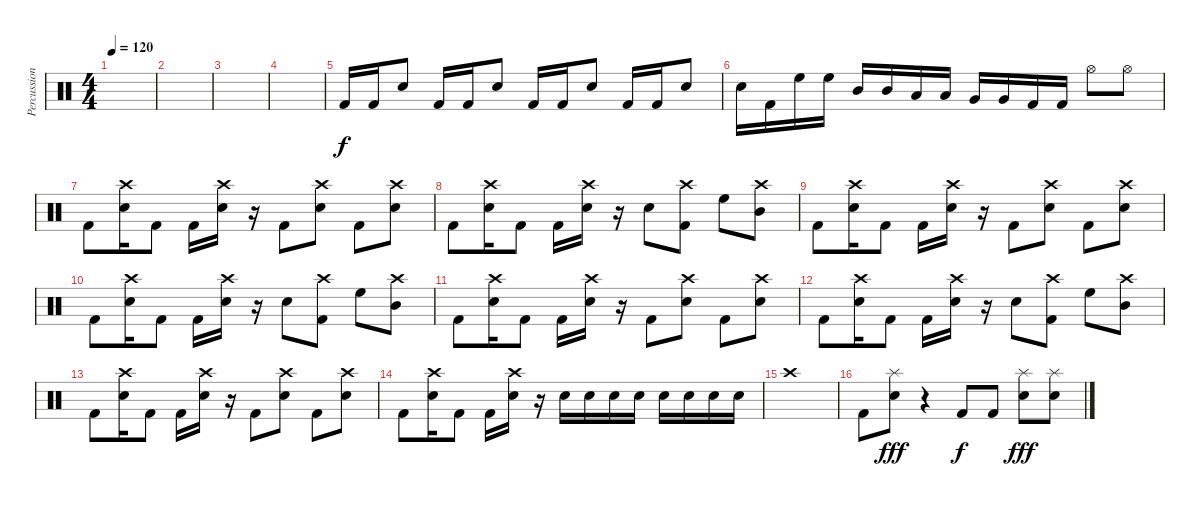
\track ("Percussion" "Percussion") {instrument percussion}
\staff {score}
\articulation defaults
\ts (4 4)
\tempo 120
\clef neutral
\ks c
|
|
|
|
"Kick (hit) 2".16 "Kick (hit) 2".16 "Electric Snare (hit)".8 "Kick (hit) 2".16 "Kick (hit) 2".16 "Electric Snare (hit)".8 "Kick (hit) 2".16 "Kick (hit) 2".16 "Electric Snare (hit)".8 "Kick (hit) 2".16 "Kick (hit) 2".16 "Electric Snare (hit)".8 |
"Electric Snare (hit)".16 "Kick (hit) 2".16 "High Floor Tom (hit)".16 "High Floor Tom (hit)".16 "Mid Tom (hit)".16 "Mid Tom (hit)".16 "Low Tom (hit)".16 "Low Tom (hit)".16 "Very Low Tom (hit)".16 "Very Low Tom (hit)".16 "Kick (hit) 2".16 "Kick (hit) 2".16 "Hi-Hat (open)".8 "Hi-Hat (open)".8 |
"Kick (hit) 2".8 ("Crash high (hit)" "Electric Snare (hit)").16 "Kick (hit) 2".8 "Kick (hit) 2".16 ("Crash high (hit)" "Electric Snare (hit)").16 r.16 "Kick (hit) 2".8 ("Crash high (hit)" "Electric Snare (hit)").8 "Kick (hit) 2".8 ("Crash high (hit)" "Electric Snare (hit)").8 |
"Kick (hit) 2".8 ("Crash high (hit)" "Electric Snare (hit)").16 "Kick (hit) 2".8 "Kick (hit) 2".16 ("Crash high (hit)" "Electric Snare (hit)").16 r.16 "Electric Snare (hit)".8 ("Crash high (hit)" "Kick (hit) 2").8 "High Floor Tom (hit)".8 ("Crash high (hit)" "Mid Tom (hit)").8 |
"Kick (hit) 2".8 ("Crash high (hit)" "Electric Snare (hit)").16 "Kick (hit) 2".8 "Kick (hit) 2".16 ("Crash high (hit)" "Electric Snare (hit)").16 r.16 "Kick (hit) 2".8 ("Crash high (hit)" "Electric Snare (hit)").8 "Kick (hit) 2".8 ("Crash high (hit)" "Electric Snare (hit)").8 |
"Kick (hit) 2".8 ("Crash high (hit)" "Electric Snare (hit)").16 "Kick (hit) 2".8 "Kick (hit) 2".16 ("Crash high (hit)" "Electric Snare (hit)").16 r.16 "Electric Snare (hit)".8 ("Crash high (hit)" "Kick (hit) 2").8 "High Floor Tom (hit)".8 ("Crash high (hit)" "Mid Tom (hit)").8 |
"Kick (hit) 2".8 ("Crash high (hit)" "Electric Snare (hit)").16 "Kick (hit) 2".8 "Kick (hit) 2".16 ("Crash high (hit)" "Electric Snare (hit)").16 r.16 "Kick (hit) 2".8 ("Crash high (hit)" "Electric Snare (hit)").8 "Kick (hit) 2".8 ("Crash high (hit)" "Electric Snare (hit)").8 |
"Kick (hit) 2".8 ("Crash high (hit)" "Electric Snare (hit)").16 "Kick (hit) 2".8 "Kick (hit) 2".16 ("Crash high (hit)" "Electric Snare (hit)").16 r.16 "Electric Snare (hit)".8 ("Crash high (hit)" "Kick (hit) 2").8 "High Floor Tom (hit)".8 ("Crash high (hit)" "Mid Tom (hit)").8 |
"Kick (hit) 2".8 ("Crash high (hit)" "Electric Snare (hit)").16 "Kick (hit) 2".8 "Kick (hit) 2".16 ("Crash high (hit)" "Electric Snare (hit)").16 r.16 "Kick (hit) 2".8 ("Crash high (hit)" "Electric Snare (hit)").8 "Kick (hit) 2".8 ("Crash high (hit)" "Electric Snare (hit)").8 |
"Kick (hit) 2".8 ("Crash high (hit)" "Electric Snare (hit)").16 "Kick (hit) 2".8 "Kick (hit) 2".16 ("Crash high (hit)" "Electric Snare (hit)").16 r.16 "Electric Snare (hit)".16 "Electric Snare (hit)".16 "Electric Snare (hit)".16 "Electric Snare (hit)".16 "Electric Snare (hit)".16 "Electric Snare (hit)".16 "Electric Snare (hit)".16 "Electric Snare (hit)".16 |
"Crash high (hit)".1 |
"Kick (hit) 2".8 ("Splash (hit)" "Electric Snare (hit)").8{dy fff} r.4 "Kick (hit) 2".8{dy f} "Kick (hit) 2".8 ("Splash (hit)" "Electric Snare (hit)").8{dy fff} ("Splash (hit)" "Electric Snare (hit)").8
